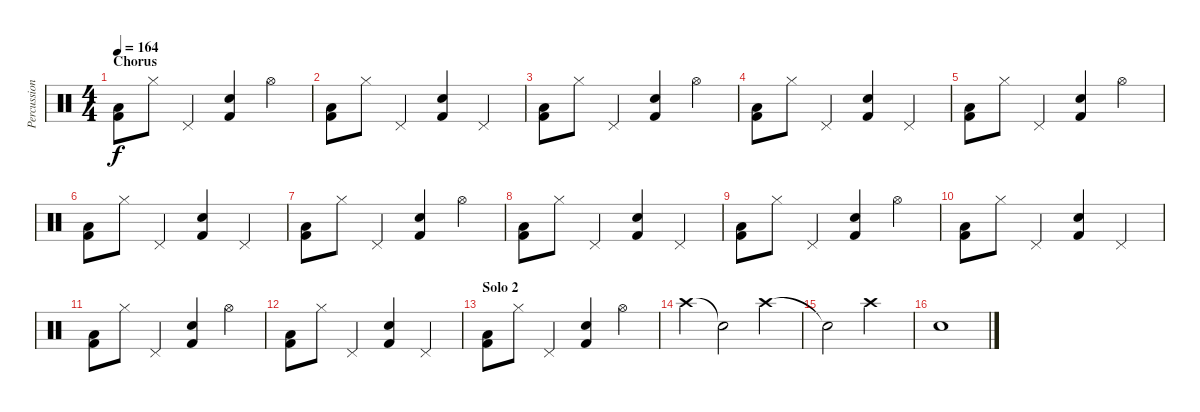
\track ("Percussion" "Percussion") {instrument percussion}
\staff {score}
\articulation defaults
\ts (4 4)
\section ("" "Chorus")
\tempo 164
\clef neutral
\ks c
("Low Tom (hit)" "Kick (hit) 2").8{dy f} "Hi-Hat (closed)".8 "Pedal Hi-Hat (hit)".4 ("Snare (hit) 2" "Kick (hit) 2").4 "Hi-Hat (open)".4 |
("Low Tom (hit)" "Kick (hit) 2").8 "Hi-Hat (closed)".8 "Pedal Hi-Hat (hit)".4 ("Snare (hit) 2" "Kick (hit) 2").4 "Pedal Hi-Hat (hit)".4 |
("Low Tom (hit)" "Kick (hit) 2").8 "Hi-Hat (closed)".8 "Pedal Hi-Hat (hit)".4 ("Snare (hit) 2" "Kick (hit) 2").4 "Hi-Hat (open)".4 |
("Low Tom (hit)" "Kick (hit) 2").8 "Hi-Hat (closed)".8 "Pedal Hi-Hat (hit)".4 ("Snare (hit) 2" "Kick (hit) 2").4 "Pedal Hi-Hat (hit)".4 |
("Low Tom (hit)" "Kick (hit) 2").8 "Hi-Hat (closed)".8 "Pedal Hi-Hat (hit)".4 ("Snare (hit) 2" "Kick (hit) 2").4 "Hi-Hat (open)".4 |
("Low Tom (hit)" "Kick (hit) 2").8 "Hi-Hat (closed)".8 "Pedal Hi-Hat (hit)".4 ("Snare (hit) 2" "Kick (hit) 2").4 "Pedal Hi-Hat (hit)".4 |
("Low Tom (hit)" "Kick (hit) 2").8 "Hi-Hat (closed)".8 "Pedal Hi-Hat (hit)".4 ("Snare (hit) 2" "Kick (hit) 2").4 "Hi-Hat (open)".4 |
("Low Tom (hit)" "Kick (hit) 2").8 "Hi-Hat (closed)".8 "Pedal Hi-Hat (hit)".4 ("Snare (hit) 2" "Kick (hit) 2").4 "Pedal Hi-Hat (hit)".4 |
("Low Tom (hit)" "Kick (hit) 2").8 "Hi-Hat (closed)".8 "Pedal Hi-Hat (hit)".4 ("Snare (hit) 2" "Kick (hit) 2").4 "Hi-Hat (open)".4 |
("Low Tom (hit)" "Kick (hit) 2").8 "Hi-Hat (closed)".8 "Pedal Hi-Hat (hit)".4 ("Snare (hit) 2" "Kick (hit) 2").4 "Pedal Hi-Hat (hit)".4 |
("Low Tom (hit)" "Kick (hit) 2").8 "Hi-Hat (closed)".8 "Pedal Hi-Hat (hit)".4 ("Snare (hit) 2" "Kick (hit) 2").4 "Hi-Hat (open)".4 |
("Low Tom (hit)" "Kick (hit) 2").8 "Hi-Hat (closed)".8 "Pedal Hi-Hat (hit)".4 ("Snare (hit) 2" "Kick (hit) 2").4 "Pedal Hi-Hat (hit)".4 |
\section ("" "Solo 2")
("Low Tom (hit)" "Kick (hit) 2").8 "Hi-Hat (closed)".8 "Pedal Hi-Hat (hit)".4 ("Snare (hit) 2" "Kick (hit) 2").4 "Hi-Hat (open)".4 |
"Crash high (hit)".4 "Snare (hit)"{t}.2 "Crash high (hit)".4 |
"Snare (hit)"{t}.2 "Crash high (hit)".2 |
"Snare (hit) 2".1
